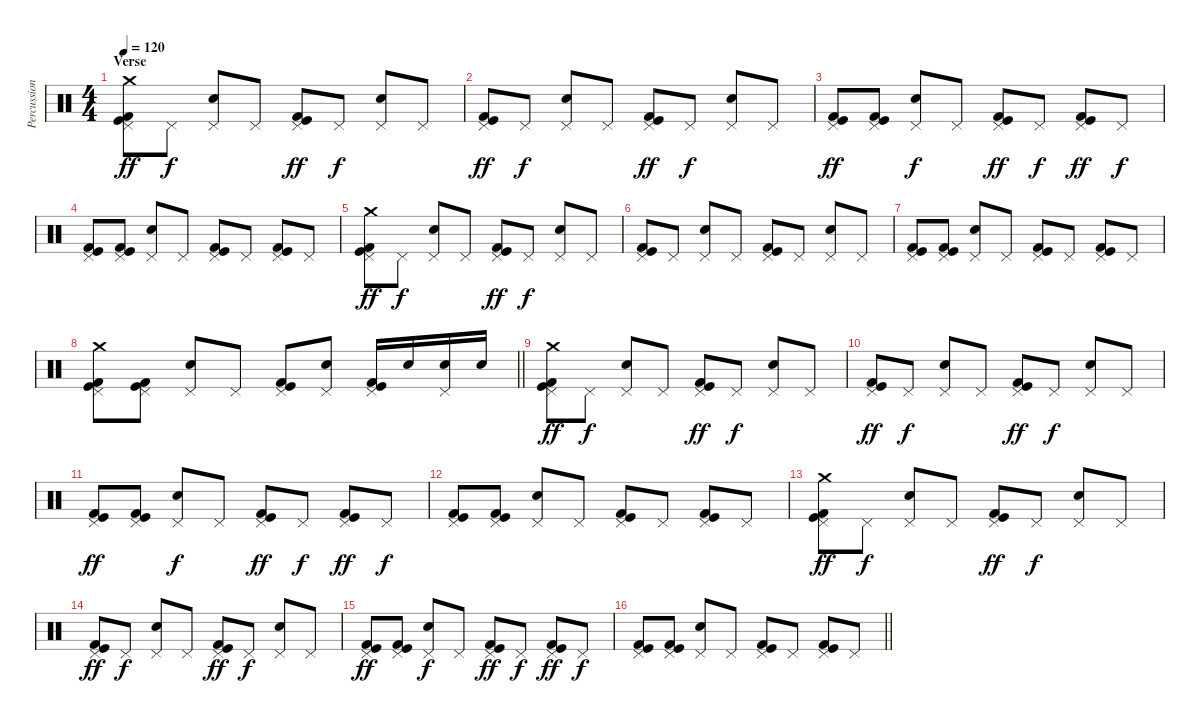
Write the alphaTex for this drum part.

\track ("Percussion" "Percussion") {instrument percussion}
\staff {score}
\articulation defaults
\ts (4 4)
\section ("" "Verse")
\tempo 120
\clef neutral
\ks c
("Crash medium (hit)" "Pedal Hi-Hat (hit)" "Kick (hit)" "Kick (hit) 2").8{dy ff} "Pedal Hi-Hat (hit)".8{dy f} ("Pedal Hi-Hat (hit)" "Electric Snare (hit)").8 "Pedal Hi-Hat (hit)".8 ("Pedal Hi-Hat (hit)" "Kick (hit)" "Kick (hit) 2").8{dy ff} "Pedal Hi-Hat (hit)".8{dy f} ("Pedal Hi-Hat (hit)" "Electric Snare (hit)").8 "Pedal Hi-Hat (hit)".8 |
("Pedal Hi-Hat (hit)" "Kick (hit)" "Kick (hit) 2").8{dy ff} "Pedal Hi-Hat (hit)".8{dy f} ("Pedal Hi-Hat (hit)" "Electric Snare (hit)").8 "Pedal Hi-Hat (hit)".8 ("Pedal Hi-Hat (hit)" "Kick (hit)" "Kick (hit) 2").8{dy ff} "Pedal Hi-Hat (hit)".8{dy f} ("Pedal Hi-Hat (hit)" "Electric Snare (hit)").8 "Pedal Hi-Hat (hit)".8 |
("Pedal Hi-Hat (hit)" "Kick (hit)" "Kick (hit) 2").8{dy ff} ("Pedal Hi-Hat (hit)" "Kick (hit)" "Kick (hit) 2").8 ("Pedal Hi-Hat (hit)" "Electric Snare (hit)").8{dy f} "Pedal Hi-Hat (hit)".8 ("Pedal Hi-Hat (hit)" "Kick (hit)" "Kick (hit) 2").8{dy ff} "Pedal Hi-Hat (hit)".8{dy f} ("Pedal Hi-Hat (hit)" "Kick (hit)" "Kick (hit) 2").8{dy ff} "Pedal Hi-Hat (hit)".8{dy f} |
("Pedal Hi-Hat (hit)" "Kick (hit)" "Kick (hit) 2").8 ("Pedal Hi-Hat (hit)" "Kick (hit)" "Kick (hit) 2").8 ("Pedal Hi-Hat (hit)" "Electric Snare (hit)").8 "Pedal Hi-Hat (hit)".8 ("Pedal Hi-Hat (hit)" "Kick (hit)" "Kick (hit) 2").8 "Pedal Hi-Hat (hit)".8 ("Pedal Hi-Hat (hit)" "Kick (hit)" "Kick (hit) 2").8 "Pedal Hi-Hat (hit)".8 |
("Crash medium (hit)" "Pedal Hi-Hat (hit)" "Kick (hit)" "Kick (hit) 2").8{dy ff} "Pedal Hi-Hat (hit)".8{dy f} ("Pedal Hi-Hat (hit)" "Electric Snare (hit)").8 "Pedal Hi-Hat (hit)".8 ("Pedal Hi-Hat (hit)" "Kick (hit)" "Kick (hit) 2").8{dy ff} "Pedal Hi-Hat (hit)".8{dy f} ("Pedal Hi-Hat (hit)" "Electric Snare (hit)").8 "Pedal Hi-Hat (hit)".8 |
("Pedal Hi-Hat (hit)" "Kick (hit)" "Kick (hit) 2").8 "Pedal Hi-Hat (hit)".8 ("Pedal Hi-Hat (hit)" "Electric Snare (hit)").8 "Pedal Hi-Hat (hit)".8 ("Pedal Hi-Hat (hit)" "Kick (hit)" "Kick (hit) 2").8 "Pedal Hi-Hat (hit)".8 ("Pedal Hi-Hat (hit)" "Electric Snare (hit)").8 "Pedal Hi-Hat (hit)".8 |
("Pedal Hi-Hat (hit)" "Kick (hit)" "Kick (hit) 2").8 ("Pedal Hi-Hat (hit)" "Kick (hit)" "Kick (hit) 2").8 ("Pedal Hi-Hat (hit)" "Electric Snare (hit)").8 "Pedal Hi-Hat (hit)".8 ("Pedal Hi-Hat (hit)" "Kick (hit)" "Kick (hit) 2").8 "Pedal Hi-Hat (hit)".8 ("Pedal Hi-Hat (hit)" "Kick (hit)" "Kick (hit) 2").8 "Pedal Hi-Hat (hit)".8 |
\barLineRight lightlight
("Crash medium (hit)" "Pedal Hi-Hat (hit)" "Kick (hit)" "Kick (hit) 2").8 ("Pedal Hi-Hat (hit)" "Kick (hit)" "Kick (hit) 2").8 ("Pedal Hi-Hat (hit)" "Electric Snare (hit)").8 "Pedal Hi-Hat (hit)".8 ("Pedal Hi-Hat (hit)" "Kick (hit)" "Kick (hit) 2").8 ("Pedal Hi-Hat (hit)" "Electric Snare (hit)").8 ("Pedal Hi-Hat (hit)" "Kick (hit)" "Kick (hit) 2").16 "Electric Snare (hit)".16 ("Pedal Hi-Hat (hit)" "Electric Snare (hit)").16 "Electric Snare (hit)".16 |
("Crash medium (hit)" "Pedal Hi-Hat (hit)" "Kick (hit)" "Kick (hit) 2").8{dy ff} "Pedal Hi-Hat (hit)".8{dy f} ("Pedal Hi-Hat (hit)" "Electric Snare (hit)").8 "Pedal Hi-Hat (hit)".8 ("Pedal Hi-Hat (hit)" "Kick (hit)" "Kick (hit) 2").8{dy ff} "Pedal Hi-Hat (hit)".8{dy f} ("Pedal Hi-Hat (hit)" "Electric Snare (hit)").8 "Pedal Hi-Hat (hit)".8 |
("Pedal Hi-Hat (hit)" "Kick (hit)" "Kick (hit) 2").8{dy ff} "Pedal Hi-Hat (hit)".8{dy f} ("Pedal Hi-Hat (hit)" "Electric Snare (hit)").8 "Pedal Hi-Hat (hit)".8 ("Pedal Hi-Hat (hit)" "Kick (hit)" "Kick (hit) 2").8{dy ff} "Pedal Hi-Hat (hit)".8{dy f} ("Pedal Hi-Hat (hit)" "Electric Snare (hit)").8 "Pedal Hi-Hat (hit)".8 |
("Pedal Hi-Hat (hit)" "Kick (hit)" "Kick (hit) 2").8{dy ff} ("Pedal Hi-Hat (hit)" "Kick (hit)" "Kick (hit) 2").8 ("Pedal Hi-Hat (hit)" "Electric Snare (hit)").8{dy f} "Pedal Hi-Hat (hit)".8 ("Pedal Hi-Hat (hit)" "Kick (hit)" "Kick (hit) 2").8{dy ff} "Pedal Hi-Hat (hit)".8{dy f} ("Pedal Hi-Hat (hit)" "Kick (hit)" "Kick (hit) 2").8{dy ff} "Pedal Hi-Hat (hit)".8{dy f} |
("Pedal Hi-Hat (hit)" "Kick (hit)" "Kick (hit) 2").8 ("Pedal Hi-Hat (hit)" "Kick (hit)" "Kick (hit) 2").8 ("Pedal Hi-Hat (hit)" "Electric Snare (hit)").8 "Pedal Hi-Hat (hit)".8 ("Pedal Hi-Hat (hit)" "Kick (hit)" "Kick (hit) 2").8 "Pedal Hi-Hat (hit)".8 ("Pedal Hi-Hat (hit)" "Kick (hit)" "Kick (hit) 2").8 "Pedal Hi-Hat (hit)".8 |
("Crash medium (hit)" "Pedal Hi-Hat (hit)" "Kick (hit)" "Kick (hit) 2").8{dy ff} "Pedal Hi-Hat (hit)".8{dy f} ("Pedal Hi-Hat (hit)" "Electric Snare (hit)").8 "Pedal Hi-Hat (hit)".8 ("Pedal Hi-Hat (hit)" "Kick (hit)" "Kick (hit) 2").8{dy ff} "Pedal Hi-Hat (hit)".8{dy f} ("Pedal Hi-Hat (hit)" "Electric Snare (hit)").8 "Pedal Hi-Hat (hit)".8 |
("Pedal Hi-Hat (hit)" "Kick (hit)" "Kick (hit) 2").8{dy ff} "Pedal Hi-Hat (hit)".8{dy f} ("Pedal Hi-Hat (hit)" "Electric Snare (hit)").8 "Pedal Hi-Hat (hit)".8 ("Pedal Hi-Hat (hit)" "Kick (hit)" "Kick (hit) 2").8{dy ff} "Pedal Hi-Hat (hit)".8{dy f} ("Pedal Hi-Hat (hit)" "Electric Snare (hit)").8 "Pedal Hi-Hat (hit)".8 |
("Pedal Hi-Hat (hit)" "Kick (hit)" "Kick (hit) 2").8{dy ff} ("Pedal Hi-Hat (hit)" "Kick (hit)" "Kick (hit) 2").8 ("Pedal Hi-Hat (hit)" "Electric Snare (hit)").8{dy f} "Pedal Hi-Hat (hit)".8 ("Pedal Hi-Hat (hit)" "Kick (hit)" "Kick (hit) 2").8{dy ff} "Pedal Hi-Hat (hit)".8{dy f} ("Pedal Hi-Hat (hit)" "Kick (hit)" "Kick (hit) 2").8{dy ff} "Pedal Hi-Hat (hit)".8{dy f} |
\barLineRight lightlight
("Pedal Hi-Hat (hit)" "Kick (hit)" "Kick (hit) 2").8 ("Pedal Hi-Hat (hit)" "Kick (hit)" "Kick (hit) 2").8 ("Pedal Hi-Hat (hit)" "Electric Snare (hit)").8 "Pedal Hi-Hat (hit)".8 ("Pedal Hi-Hat (hit)" "Kick (hit)" "Kick (hit) 2").8 "Pedal Hi-Hat (hit)".8 ("Pedal Hi-Hat (hit)" "Kick (hit)" "Kick (hit) 2").8 "Pedal Hi-Hat (hit)".8
